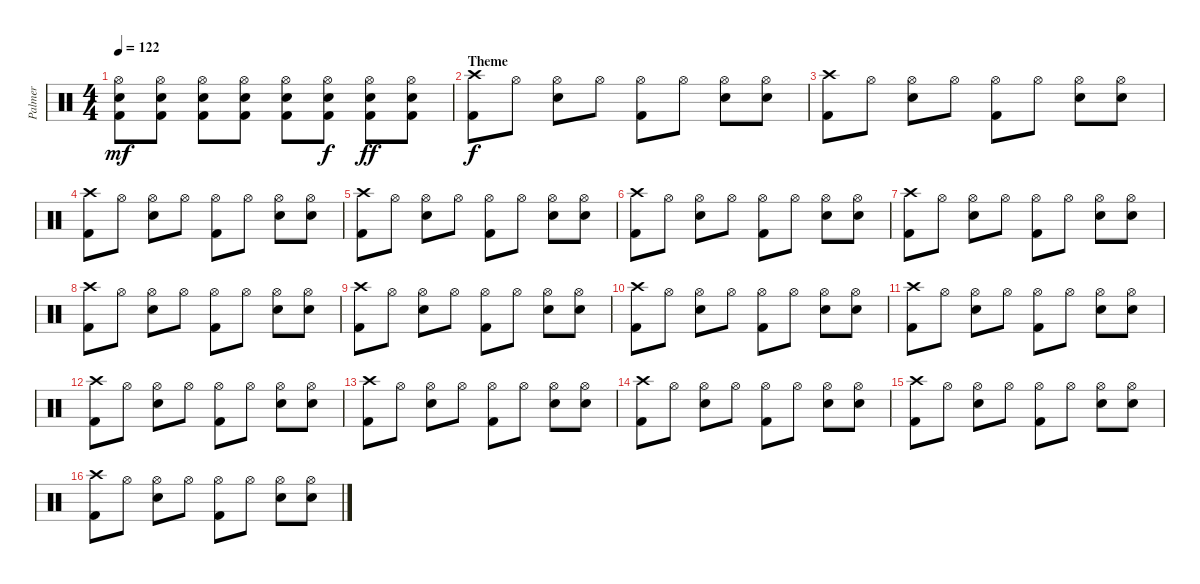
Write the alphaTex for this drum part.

\track ("Palmer" "Palmer") {instrument percussion}
\staff {score}
\articulation defaults
\ts (4 4)
\tempo 122
\clef neutral
\ks c
("Hi-Hat (open)" "Electric Snare (hit)" "Kick (hit) 2").8{dy mf} ("Hi-Hat (open)" "Electric Snare (hit)" "Kick (hit) 2").8 ("Hi-Hat (open)" "Electric Snare (hit)" "Kick (hit) 2").8 ("Hi-Hat (open)" "Electric Snare (hit)" "Kick (hit) 2").8 ("Hi-Hat (open)" "Electric Snare (hit)" "Kick (hit) 2").8 ("Hi-Hat (open)" "Electric Snare (hit)" "Kick (hit) 2").8{dy f} ("Hi-Hat (open)" "Electric Snare (hit)" "Kick (hit) 2").8{dy ff} ("Hi-Hat (open)" "Electric Snare (hit)" "Kick (hit) 2").8 |
\section ("" "Theme")
("Crash high (hit)" "Kick (hit) 2").8{dy f} "Hi-Hat (open)".8 ("Hi-Hat (open)" "Electric Snare (hit)").8 "Hi-Hat (open)".8 ("Hi-Hat (open)" "Kick (hit) 2").8 "Hi-Hat (open)".8 ("Hi-Hat (open)" "Electric Snare (hit)").8 ("Hi-Hat (open)" "Electric Snare (hit)").8 |
("Crash high (hit)" "Kick (hit) 2").8 "Hi-Hat (open)".8 ("Hi-Hat (open)" "Electric Snare (hit)").8 "Hi-Hat (open)".8 ("Hi-Hat (open)" "Kick (hit) 2").8 "Hi-Hat (open)".8 ("Hi-Hat (open)" "Electric Snare (hit)").8 ("Hi-Hat (open)" "Electric Snare (hit)").8 |
("Crash high (hit)" "Kick (hit) 2").8 "Hi-Hat (open)".8 ("Hi-Hat (open)" "Electric Snare (hit)").8 "Hi-Hat (open)".8 ("Hi-Hat (open)" "Kick (hit) 2").8 "Hi-Hat (open)".8 ("Hi-Hat (open)" "Electric Snare (hit)").8 ("Hi-Hat (open)" "Electric Snare (hit)").8 |
("Crash high (hit)" "Kick (hit) 2").8 "Hi-Hat (open)".8 ("Hi-Hat (open)" "Electric Snare (hit)").8 "Hi-Hat (open)".8 ("Hi-Hat (open)" "Kick (hit) 2").8 "Hi-Hat (open)".8 ("Hi-Hat (open)" "Electric Snare (hit)").8 ("Hi-Hat (open)" "Electric Snare (hit)").8 |
("Crash high (hit)" "Kick (hit) 2").8 "Hi-Hat (open)".8 ("Hi-Hat (open)" "Electric Snare (hit)").8 "Hi-Hat (open)".8 ("Hi-Hat (open)" "Kick (hit) 2").8 "Hi-Hat (open)".8 ("Hi-Hat (open)" "Electric Snare (hit)").8 ("Hi-Hat (open)" "Electric Snare (hit)").8 |
("Crash high (hit)" "Kick (hit) 2").8 "Hi-Hat (open)".8 ("Hi-Hat (open)" "Electric Snare (hit)").8 "Hi-Hat (open)".8 ("Hi-Hat (open)" "Kick (hit) 2").8 "Hi-Hat (open)".8 ("Hi-Hat (open)" "Electric Snare (hit)").8 ("Hi-Hat (open)" "Electric Snare (hit)").8 |
("Crash high (hit)" "Kick (hit) 2").8 "Hi-Hat (open)".8 ("Hi-Hat (open)" "Electric Snare (hit)").8 "Hi-Hat (open)".8 ("Hi-Hat (open)" "Kick (hit) 2").8 "Hi-Hat (open)".8 ("Hi-Hat (open)" "Electric Snare (hit)").8 ("Hi-Hat (open)" "Electric Snare (hit)").8 |
("Crash high (hit)" "Kick (hit) 2").8 "Hi-Hat (open)".8 ("Hi-Hat (open)" "Electric Snare (hit)").8 "Hi-Hat (open)".8 ("Hi-Hat (open)" "Kick (hit) 2").8 "Hi-Hat (open)".8 ("Hi-Hat (open)" "Electric Snare (hit)").8 ("Hi-Hat (open)" "Electric Snare (hit)").8 |
("Crash high (hit)" "Kick (hit) 2").8 "Hi-Hat (open)".8 ("Hi-Hat (open)" "Electric Snare (hit)").8 "Hi-Hat (open)".8 ("Hi-Hat (open)" "Kick (hit) 2").8 "Hi-Hat (open)".8 ("Hi-Hat (open)" "Electric Snare (hit)").8 ("Hi-Hat (open)" "Electric Snare (hit)").8 |
("Crash high (hit)" "Kick (hit) 2").8 "Hi-Hat (open)".8 ("Hi-Hat (open)" "Electric Snare (hit)").8 "Hi-Hat (open)".8 ("Hi-Hat (open)" "Kick (hit) 2").8 "Hi-Hat (open)".8 ("Hi-Hat (open)" "Electric Snare (hit)").8 ("Hi-Hat (open)" "Electric Snare (hit)").8 |
("Crash high (hit)" "Kick (hit) 2").8 "Hi-Hat (open)".8 ("Hi-Hat (open)" "Electric Snare (hit)").8 "Hi-Hat (open)".8 ("Hi-Hat (open)" "Kick (hit) 2").8 "Hi-Hat (open)".8 ("Hi-Hat (open)" "Electric Snare (hit)").8 ("Hi-Hat (open)" "Electric Snare (hit)").8 |
("Crash high (hit)" "Kick (hit) 2").8 "Hi-Hat (open)".8 ("Hi-Hat (open)" "Electric Snare (hit)").8 "Hi-Hat (open)".8 ("Hi-Hat (open)" "Kick (hit) 2").8 "Hi-Hat (open)".8 ("Hi-Hat (open)" "Electric Snare (hit)").8 ("Hi-Hat (open)" "Electric Snare (hit)").8 |
("Crash high (hit)" "Kick (hit) 2").8 "Hi-Hat (open)".8 ("Hi-Hat (open)" "Electric Snare (hit)").8 "Hi-Hat (open)".8 ("Hi-Hat (open)" "Kick (hit) 2").8 "Hi-Hat (open)".8 ("Hi-Hat (open)" "Electric Snare (hit)").8 ("Hi-Hat (open)" "Electric Snare (hit)").8 |
("Crash high (hit)" "Kick (hit) 2").8 "Hi-Hat (open)".8 ("Hi-Hat (open)" "Electric Snare (hit)").8 "Hi-Hat (open)".8 ("Hi-Hat (open)" "Kick (hit) 2").8 "Hi-Hat (open)".8 ("Hi-Hat (open)" "Electric Snare (hit)").8 ("Hi-Hat (open)" "Electric Snare (hit)").8 |
("Crash high (hit)" "Kick (hit) 2").8 "Hi-Hat (open)".8 ("Hi-Hat (open)" "Electric Snare (hit)").8 "Hi-Hat (open)".8 ("Hi-Hat (open)" "Kick (hit) 2").8 "Hi-Hat (open)".8 ("Hi-Hat (open)" "Electric Snare (hit)").8 ("Hi-Hat (open)" "Electric Snare (hit)").8
